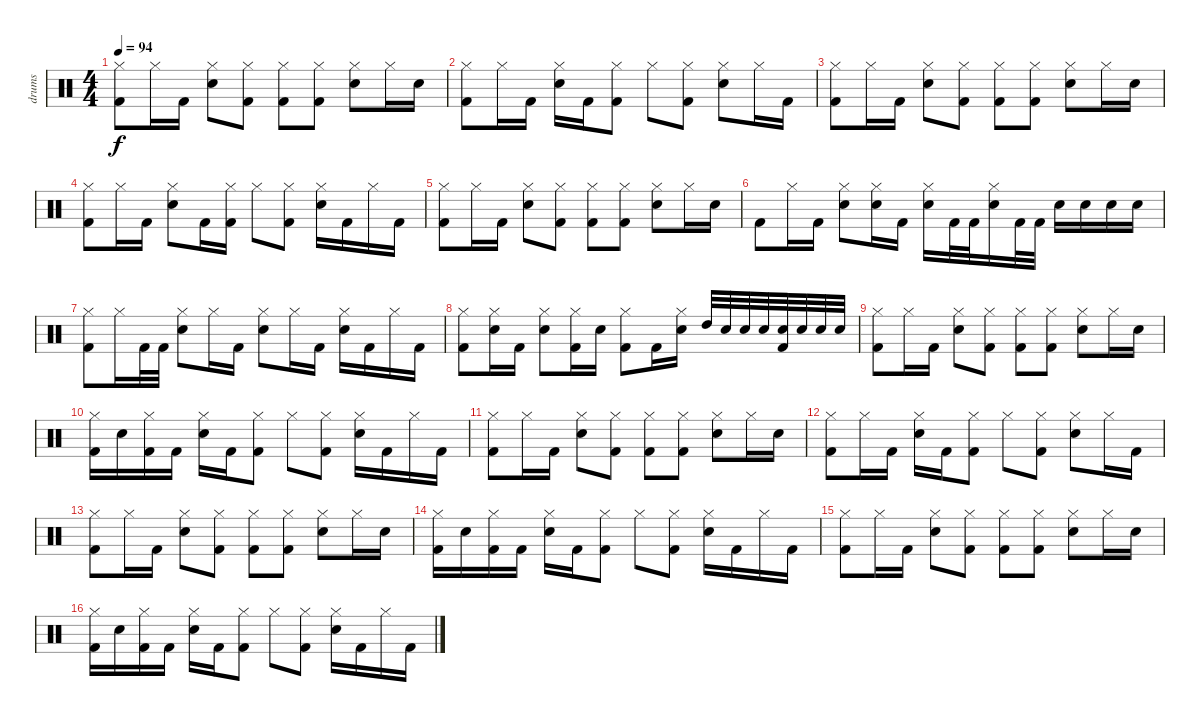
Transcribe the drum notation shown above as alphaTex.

\track ("drums" "drums") {instrument percussion}
\staff {score}
\articulation defaults
\ts (4 4)
\tempo 94
\clef neutral
\ks c
("Kick (hit) 2" "Hi-Hat (closed)").8{dy f} "Hi-Hat (closed)".16 "Kick (hit) 2".16 ("Hi-Hat (closed)" "Snare (hit) 2").8 ("Kick (hit) 2" "Hi-Hat (closed)").8 ("Kick (hit) 2" "Hi-Hat (closed)").8 ("Hi-Hat (closed)" "Kick (hit) 2").8 ("Hi-Hat (closed)" "Snare (hit) 2").8 "Hi-Hat (closed)".16 "Snare (hit) 2".16 |
("Hi-Hat (closed)" "Kick (hit) 2").8 "Hi-Hat (closed)".16 "Kick (hit) 2".16 ("Hi-Hat (closed)" "Snare (hit) 2").16 "Kick (hit) 2".16 ("Hi-Hat (closed)" "Kick (hit) 2").8 "Hi-Hat (closed)".8 ("Hi-Hat (closed)" "Kick (hit) 2").8 ("Hi-Hat (closed)" "Snare (hit) 2").8 "Hi-Hat (closed)".16 "Kick (hit) 2".16 |
("Kick (hit) 2" "Hi-Hat (closed)").8 "Hi-Hat (closed)".16 "Kick (hit) 2".16 ("Hi-Hat (closed)" "Snare (hit) 2").8 ("Kick (hit) 2" "Hi-Hat (closed)").8 ("Kick (hit) 2" "Hi-Hat (closed)").8 ("Hi-Hat (closed)" "Kick (hit) 2").8 ("Hi-Hat (closed)" "Snare (hit) 2").8 "Hi-Hat (closed)".16 "Snare (hit) 2".16 |
("Hi-Hat (closed)" "Kick (hit) 2").8 "Hi-Hat (closed)".16 "Kick (hit) 2".16 ("Hi-Hat (closed)" "Snare (hit) 2").8 "Kick (hit) 2".16 ("Hi-Hat (closed)" "Kick (hit) 2").16 "Hi-Hat (closed)".8 ("Hi-Hat (closed)" "Kick (hit) 2").8 ("Hi-Hat (closed)" "Snare (hit) 2").16 "Kick (hit) 2".16 "Hi-Hat (closed)".16 "Kick (hit) 2".16 |
("Kick (hit) 2" "Hi-Hat (closed)").8 "Hi-Hat (closed)".16 "Kick (hit) 2".16 ("Hi-Hat (closed)" "Snare (hit) 2").8 ("Kick (hit) 2" "Hi-Hat (closed)").8 ("Kick (hit) 2" "Hi-Hat (closed)").8 ("Hi-Hat (closed)" "Kick (hit) 2").8 ("Hi-Hat (closed)" "Snare (hit) 2").8 "Hi-Hat (closed)".16 "Snare (hit) 2".16 |
"Kick (hit) 2".8 "Hi-Hat (closed)".16 "Kick (hit) 2".16 ("Hi-Hat (closed)" "Snare (hit) 2").8 ("Hi-Hat (closed)" "Snare (hit) 2").16 "Kick (hit) 2".16 ("Snare (hit) 2" "Hi-Hat (closed)").16 "Kick (hit) 2".32 "Kick (hit) 2".32 ("Snare (hit) 2" "Hi-Hat (closed)").16 "Kick (hit) 2".32 "Kick (hit) 2".32 "Snare (hit) 2".16 "Snare (hit) 2".16 "Snare (hit) 2".16 "Snare (hit) 2".16 |
("Hi-Hat (closed)" "Kick (hit) 2").8 "Hi-Hat (closed)".16 "Kick (hit) 2".32 "Kick (hit) 2".32 ("Hi-Hat (closed)" "Snare (hit) 2").8 "Hi-Hat (closed)".16 "Kick (hit) 2".16 ("Hi-Hat (closed)" "Snare (hit) 2").8 "Hi-Hat (closed)".16 "Kick (hit) 2".16 ("Hi-Hat (closed)" "Snare (hit) 2").16 "Kick (hit) 2".16 "Hi-Hat (closed)".16 "Kick (hit) 2".16 |
("Hi-Hat (closed)" "Kick (hit) 2").8 ("Hi-Hat (closed)" "Snare (hit) 2").16 "Kick (hit) 2".16 ("Hi-Hat (closed)" "Snare (hit) 2").8 ("Hi-Hat (closed)" "Kick (hit) 2").16 "Snare (hit) 2".16 ("Hi-Hat (closed)" "Kick (hit) 2").8 "Kick (hit) 2".16 ("Snare (hit) 2" "Hi-Hat (closed)").16 "High Tom (hit)".32 "Snare (hit) 2".32 "Snare (hit) 2".32 "Snare (hit) 2".32 ("Snare (hit) 2" "Kick (hit) 2").32 "Snare (hit) 2".32 "Snare (hit) 2".32 "Snare (hit) 2".32 |
("Kick (hit) 2" "Hi-Hat (closed)").8 "Hi-Hat (closed)".16 "Kick (hit) 2".16 ("Hi-Hat (closed)" "Snare (hit) 2").8 ("Kick (hit) 2" "Hi-Hat (closed)").8 ("Kick (hit) 2" "Hi-Hat (closed)").8 ("Hi-Hat (closed)" "Kick (hit) 2").8 ("Hi-Hat (closed)" "Snare (hit) 2").8 "Hi-Hat (closed)".16 "Snare (hit) 2".16 |
("Hi-Hat (closed)" "Kick (hit) 2").16 "Snare (hit) 2".16 ("Hi-Hat (closed)" "Kick (hit) 2").16 "Kick (hit) 2".16 ("Hi-Hat (closed)" "Snare (hit) 2").16 "Kick (hit) 2".16 ("Hi-Hat (closed)" "Kick (hit) 2").8 "Hi-Hat (closed)".8 ("Hi-Hat (closed)" "Kick (hit) 2").8 ("Hi-Hat (closed)" "Snare (hit) 2").16 "Kick (hit) 2".16 "Hi-Hat (closed)".16 "Kick (hit) 2".16 |
("Kick (hit) 2" "Hi-Hat (closed)").8 "Hi-Hat (closed)".16 "Kick (hit) 2".16 ("Hi-Hat (closed)" "Snare (hit) 2").8 ("Kick (hit) 2" "Hi-Hat (closed)").8 ("Kick (hit) 2" "Hi-Hat (closed)").8 ("Hi-Hat (closed)" "Kick (hit) 2").8 ("Hi-Hat (closed)" "Snare (hit) 2").8 "Hi-Hat (closed)".16 "Snare (hit) 2".16 |
("Hi-Hat (closed)" "Kick (hit) 2").8 "Hi-Hat (closed)".16 "Kick (hit) 2".16 ("Hi-Hat (closed)" "Snare (hit) 2").16 "Kick (hit) 2".16 ("Hi-Hat (closed)" "Kick (hit) 2").8 "Hi-Hat (closed)".8 ("Hi-Hat (closed)" "Kick (hit) 2").8 ("Hi-Hat (closed)" "Snare (hit) 2").8 "Hi-Hat (closed)".16 "Kick (hit) 2".16 |
("Kick (hit) 2" "Hi-Hat (closed)").8 "Hi-Hat (closed)".16 "Kick (hit) 2".16 ("Hi-Hat (closed)" "Snare (hit) 2").8 ("Kick (hit) 2" "Hi-Hat (closed)").8 ("Kick (hit) 2" "Hi-Hat (closed)").8 ("Hi-Hat (closed)" "Kick (hit) 2").8 ("Hi-Hat (closed)" "Snare (hit) 2").8 "Hi-Hat (closed)".16 "Snare (hit) 2".16 |
("Hi-Hat (closed)" "Kick (hit) 2").16 "Snare (hit) 2".16 ("Hi-Hat (closed)" "Kick (hit) 2").16 "Kick (hit) 2".16 ("Hi-Hat (closed)" "Snare (hit) 2").16 "Kick (hit) 2".16 ("Hi-Hat (closed)" "Kick (hit) 2").8 "Hi-Hat (closed)".8 ("Hi-Hat (closed)" "Kick (hit) 2").8 ("Hi-Hat (closed)" "Snare (hit) 2").16 "Kick (hit) 2".16 "Hi-Hat (closed)".16 "Kick (hit) 2".16 |
("Kick (hit) 2" "Hi-Hat (closed)").8 "Hi-Hat (closed)".16 "Kick (hit) 2".16 ("Hi-Hat (closed)" "Snare (hit) 2").8 ("Kick (hit) 2" "Hi-Hat (closed)").8 ("Kick (hit) 2" "Hi-Hat (closed)").8 ("Hi-Hat (closed)" "Kick (hit) 2").8 ("Hi-Hat (closed)" "Snare (hit) 2").8 "Hi-Hat (closed)".16 "Snare (hit) 2".16 |
("Hi-Hat (closed)" "Kick (hit) 2").16 "Snare (hit) 2".16 ("Hi-Hat (closed)" "Kick (hit) 2").16 "Kick (hit) 2".16 ("Hi-Hat (closed)" "Snare (hit) 2").16 "Kick (hit) 2".16 ("Hi-Hat (closed)" "Kick (hit) 2").8 "Hi-Hat (closed)".8 ("Hi-Hat (closed)" "Kick (hit) 2").8 ("Hi-Hat (closed)" "Snare (hit) 2").16 "Kick (hit) 2".16 "Hi-Hat (closed)".16 "Kick (hit) 2".16
